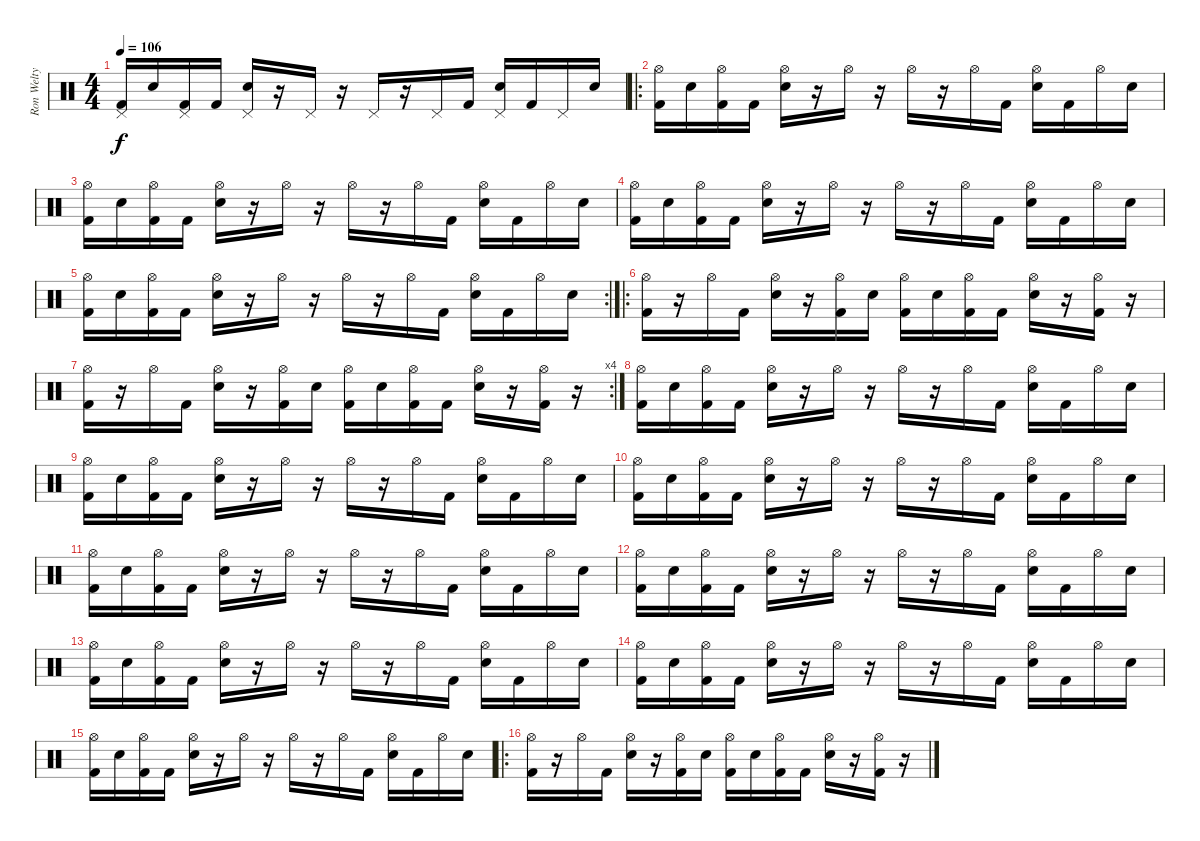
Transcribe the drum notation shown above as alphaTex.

\track ("Ron Welty - Drummer" "Ron Welty ") {instrument percussion}
\staff {score}
\articulation defaults
\ts (4 4)
\tempo 106
\clef neutral
\ks c
("Kick (hit) 2" "Pedal Hi-Hat (hit)").16{dy f} "Electric Snare (hit)".16 ("Kick (hit) 2" "Pedal Hi-Hat (hit)").16 "Kick (hit) 2".16 ("Electric Snare (hit)" "Pedal Hi-Hat (hit)").16 r.16 "Pedal Hi-Hat (hit)".16 r.16 "Pedal Hi-Hat (hit)".16 r.16 "Pedal Hi-Hat (hit)".16 "Kick (hit) 2".16 ("Electric Snare (hit)" "Pedal Hi-Hat (hit)").16 "Kick (hit) 2".16 "Pedal Hi-Hat (hit)".16 "Electric Snare (hit)".16 |
\ro
("Kick (hit) 2" "Hi-Hat (open)").16 "Electric Snare (hit)".16 ("Kick (hit) 2" "Hi-Hat (open)").16 "Kick (hit) 2".16 ("Electric Snare (hit)" "Hi-Hat (open)").16 r.16 "Hi-Hat (open)".16 r.16 "Hi-Hat (open)".16 r.16 "Hi-Hat (open)".16 "Kick (hit) 2".16 ("Electric Snare (hit)" "Hi-Hat (open)").16 "Kick (hit) 2".16 "Hi-Hat (open)".16 "Electric Snare (hit)".16 |
("Kick (hit) 2" "Hi-Hat (open)").16 "Electric Snare (hit)".16 ("Kick (hit) 2" "Hi-Hat (open)").16 "Kick (hit) 2".16 ("Electric Snare (hit)" "Hi-Hat (open)").16 r.16 "Hi-Hat (open)".16 r.16 "Hi-Hat (open)".16 r.16 "Hi-Hat (open)".16 "Kick (hit) 2".16 ("Electric Snare (hit)" "Hi-Hat (open)").16 "Kick (hit) 2".16 "Hi-Hat (open)".16 "Electric Snare (hit)".16 |
("Kick (hit) 2" "Hi-Hat (open)").16 "Electric Snare (hit)".16 ("Kick (hit) 2" "Hi-Hat (open)").16 "Kick (hit) 2".16 ("Electric Snare (hit)" "Hi-Hat (open)").16 r.16 "Hi-Hat (open)".16 r.16 "Hi-Hat (open)".16 r.16 "Hi-Hat (open)".16 "Kick (hit) 2".16 ("Electric Snare (hit)" "Hi-Hat (open)").16 "Kick (hit) 2".16 "Hi-Hat (open)".16 "Electric Snare (hit)".16 |
\rc 2
("Kick (hit) 2" "Hi-Hat (open)").16 "Electric Snare (hit)".16 ("Kick (hit) 2" "Hi-Hat (open)").16 "Kick (hit) 2".16 ("Electric Snare (hit)" "Hi-Hat (open)").16 r.16 "Hi-Hat (open)".16 r.16 "Hi-Hat (open)".16 r.16 "Hi-Hat (open)".16 "Kick (hit) 2".16 ("Electric Snare (hit)" "Hi-Hat (open)").16 "Kick (hit) 2".16 "Hi-Hat (open)".16 "Electric Snare (hit)".16 |
\ro
("Hi-Hat (open)" "Kick (hit) 2").16 r.16 "Hi-Hat (open)".16 "Kick (hit) 2".16 ("Hi-Hat (open)" "Electric Snare (hit)").16 r.16 ("Hi-Hat (open)" "Kick (hit) 2").16 "Electric Snare (hit)".16 ("Hi-Hat (open)" "Kick (hit) 2").16 "Electric Snare (hit)".16 ("Hi-Hat (open)" "Kick (hit) 2").16 "Kick (hit) 2".16 ("Hi-Hat (open)" "Electric Snare (hit)").16 r.16 ("Hi-Hat (open)" "Kick (hit) 2").16 r.16 |
\rc 4
("Kick (hit) 2" "Hi-Hat (open)").16 r.16 "Hi-Hat (open)".16 "Kick (hit) 2".16 ("Hi-Hat (open)" "Electric Snare (hit)").16 r.16 ("Hi-Hat (open)" "Kick (hit) 2").16 "Electric Snare (hit)".16 ("Hi-Hat (open)" "Kick (hit) 2").16 "Electric Snare (hit)".16 ("Hi-Hat (open)" "Kick (hit) 2").16 "Kick (hit) 2".16 ("Hi-Hat (open)" "Electric Snare (hit)").16 r.16 ("Hi-Hat (open)" "Kick (hit) 2").16 r.16 |
("Kick (hit) 2" "Hi-Hat (open)").16 "Electric Snare (hit)".16 ("Kick (hit) 2" "Hi-Hat (open)").16 "Kick (hit) 2".16 ("Electric Snare (hit)" "Hi-Hat (open)").16 r.16 "Hi-Hat (open)".16 r.16 "Hi-Hat (open)".16 r.16 "Hi-Hat (open)".16 "Kick (hit) 2".16 ("Electric Snare (hit)" "Hi-Hat (open)").16 "Kick (hit) 2".16 "Hi-Hat (open)".16 "Electric Snare (hit)".16 |
("Kick (hit) 2" "Hi-Hat (open)").16 "Electric Snare (hit)".16 ("Kick (hit) 2" "Hi-Hat (open)").16 "Kick (hit) 2".16 ("Electric Snare (hit)" "Hi-Hat (open)").16 r.16 "Hi-Hat (open)".16 r.16 "Hi-Hat (open)".16 r.16 "Hi-Hat (open)".16 "Kick (hit) 2".16 ("Electric Snare (hit)" "Hi-Hat (open)").16 "Kick (hit) 2".16 "Hi-Hat (open)".16 "Electric Snare (hit)".16 |
("Kick (hit) 2" "Hi-Hat (open)").16 "Electric Snare (hit)".16 ("Kick (hit) 2" "Hi-Hat (open)").16 "Kick (hit) 2".16 ("Electric Snare (hit)" "Hi-Hat (open)").16 r.16 "Hi-Hat (open)".16 r.16 "Hi-Hat (open)".16 r.16 "Hi-Hat (open)".16 "Kick (hit) 2".16 ("Electric Snare (hit)" "Hi-Hat (open)").16 "Kick (hit) 2".16 "Hi-Hat (open)".16 "Electric Snare (hit)".16 |
("Kick (hit) 2" "Hi-Hat (open)").16 "Electric Snare (hit)".16 ("Kick (hit) 2" "Hi-Hat (open)").16 "Kick (hit) 2".16 ("Electric Snare (hit)" "Hi-Hat (open)").16 r.16 "Hi-Hat (open)".16 r.16 "Hi-Hat (open)".16 r.16 "Hi-Hat (open)".16 "Kick (hit) 2".16 ("Electric Snare (hit)" "Hi-Hat (open)").16 "Kick (hit) 2".16 "Hi-Hat (open)".16 "Electric Snare (hit)".16 |
("Kick (hit) 2" "Hi-Hat (open)").16 "Electric Snare (hit)".16 ("Kick (hit) 2" "Hi-Hat (open)").16 "Kick (hit) 2".16 ("Electric Snare (hit)" "Hi-Hat (open)").16 r.16 "Hi-Hat (open)".16 r.16 "Hi-Hat (open)".16 r.16 "Hi-Hat (open)".16 "Kick (hit) 2".16 ("Electric Snare (hit)" "Hi-Hat (open)").16 "Kick (hit) 2".16 "Hi-Hat (open)".16 "Electric Snare (hit)".16 |
("Kick (hit) 2" "Hi-Hat (open)").16 "Electric Snare (hit)".16 ("Kick (hit) 2" "Hi-Hat (open)").16 "Kick (hit) 2".16 ("Electric Snare (hit)" "Hi-Hat (open)").16 r.16 "Hi-Hat (open)".16 r.16 "Hi-Hat (open)".16 r.16 "Hi-Hat (open)".16 "Kick (hit) 2".16 ("Electric Snare (hit)" "Hi-Hat (open)").16 "Kick (hit) 2".16 "Hi-Hat (open)".16 "Electric Snare (hit)".16 |
("Kick (hit) 2" "Hi-Hat (open)").16 "Electric Snare (hit)".16 ("Kick (hit) 2" "Hi-Hat (open)").16 "Kick (hit) 2".16 ("Electric Snare (hit)" "Hi-Hat (open)").16 r.16 "Hi-Hat (open)".16 r.16 "Hi-Hat (open)".16 r.16 "Hi-Hat (open)".16 "Kick (hit) 2".16 ("Electric Snare (hit)" "Hi-Hat (open)").16 "Kick (hit) 2".16 "Hi-Hat (open)".16 "Electric Snare (hit)".16 |
("Kick (hit) 2" "Hi-Hat (open)").16 "Electric Snare (hit)".16 ("Kick (hit) 2" "Hi-Hat (open)").16 "Kick (hit) 2".16 ("Electric Snare (hit)" "Hi-Hat (open)").16 r.16 "Hi-Hat (open)".16 r.16 "Hi-Hat (open)".16 r.16 "Hi-Hat (open)".16 "Kick (hit) 2".16 ("Electric Snare (hit)" "Hi-Hat (open)").16 "Kick (hit) 2".16 "Hi-Hat (open)".16 "Electric Snare (hit)".16 |
\ro
("Hi-Hat (open)" "Kick (hit) 2").16 r.16 "Hi-Hat (open)".16 "Kick (hit) 2".16 ("Hi-Hat (open)" "Electric Snare (hit)").16 r.16 ("Hi-Hat (open)" "Kick (hit) 2").16 "Electric Snare (hit)".16 ("Hi-Hat (open)" "Kick (hit) 2").16 "Electric Snare (hit)".16 ("Hi-Hat (open)" "Kick (hit) 2").16 "Kick (hit) 2".16 ("Hi-Hat (open)" "Electric Snare (hit)").16 r.16 ("Hi-Hat (open)" "Kick (hit) 2").16 r.16
